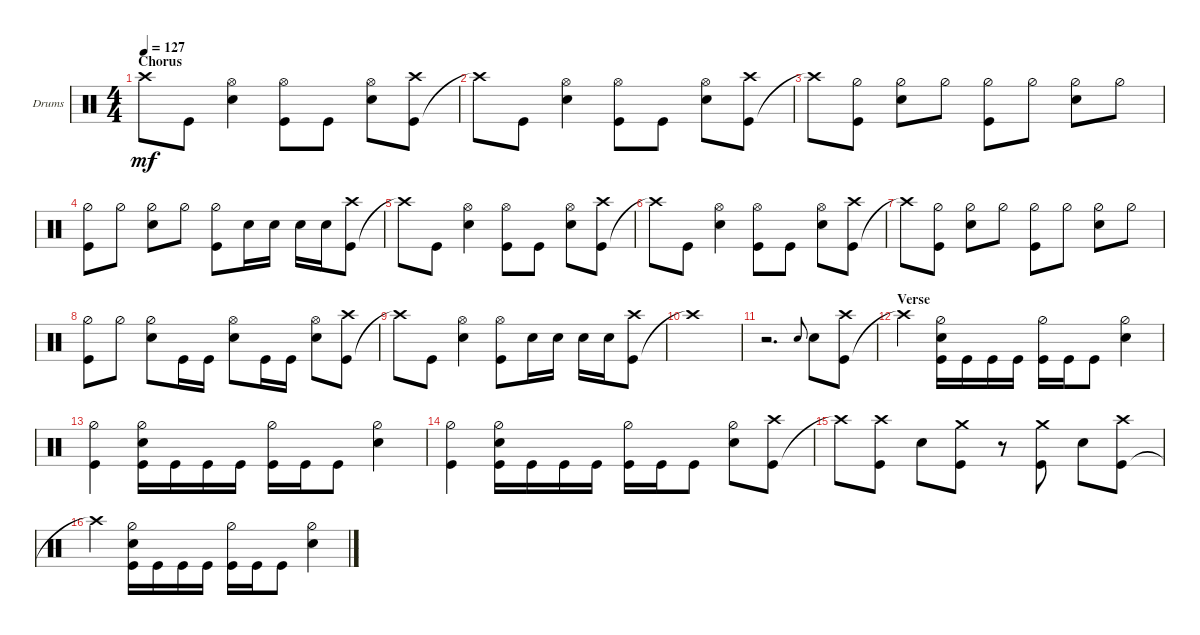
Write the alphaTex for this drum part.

\defaultSystemsLayout 4
\bracketExtendMode groupsimilarinstruments
\firstSystemTrackNameOrientation horizontal
\otherSystemsTrackNameOrientation horizontal
\track ("Drumkit" "Drums") {instrument percussion}
\staff {score}
\articulation defaults
\ts (4 4)
\section ("" "Chorus")
\tempo 127
\clef neutral
\scale
0.333333
\ks c "Crash high (hit)"{t}.8{dy mf} "Kick (hit)".8
("Snare (hit) 2" "Hi-Hat (open)").4 ("Kick (hit)" "Hi-Hat (open)").8 "Kick (hit)".8 ("Snare (hit) 2" "Hi-Hat (open)").8 ("Kick (hit)" "Crash high (hit)").8 |
\scale
0.333333 "Crash high (hit)"{t}.8 "Kick (hit)".8 ("Snare (hit) 2" "Hi-Hat (open)").4 ("Kick (hit)" "Hi-Hat (open)").8 "Kick (hit)".8 ("Snare (hit) 2" "Hi-Hat (open)").8 ("Kick (hit)" "Crash high (hit)").8 |
\scale
0.333333 "Crash high (hit)"{t}.8 ("Hi-Hat (half)" "Kick (hit)").8 ("Snare (hit) 2" "Hi-Hat (half)").8 "Hi-Hat (half)".8 ("Hi-Hat (half)" "Kick (hit)").8 "Hi-Hat (half)".8 ("Hi-Hat (half)" "Snare (hit) 2").8 "Hi-Hat (half)".8 |
\scale
0.333333 ("Hi-Hat (half)" "Kick (hit)").8 "Hi-Hat (half)".8 ("Hi-Hat (half)" "Snare (hit) 2").8 "Hi-Hat (half)".8 ("Hi-Hat (half)" "Kick (hit)").8 "Snare (hit) 2".16 "Snare (hit) 2".16 "Snare (hit) 2".16 "Snare (hit) 2".16 ("Kick (hit)" "Crash high (hit)").8 |
\scale
0.333333 "Crash high (hit)"{t}.8 "Kick (hit)".8 ("Snare (hit) 2" "Hi-Hat (open)").4 ("Kick (hit)" "Hi-Hat (open)").8 "Kick (hit)".8 ("Snare (hit) 2" "Hi-Hat (open)").8 ("Kick (hit)" "Crash high (hit)").8 |
\scale
0.333333 "Crash high (hit)"{t}.8 "Kick (hit)".8 ("Snare (hit) 2" "Hi-Hat (open)").4 ("Kick (hit)" "Hi-Hat (open)").8 "Kick (hit)".8 ("Snare (hit) 2" "Hi-Hat (open)").8 ("Kick (hit)" "Crash high (hit)").8 |
\scale
0.333333 "Crash high (hit)"{t}.8 ("Hi-Hat (half)" "Kick (hit)").8 ("Snare (hit) 2" "Hi-Hat (half)").8 "Hi-Hat (half)".8 ("Hi-Hat (half)" "Kick (hit)").8 "Hi-Hat (half)".8 ("Hi-Hat (half)" "Snare (hit) 2").8 "Hi-Hat (half)".8 |
\scale
0.333333 ("Hi-Hat (half)" "Kick (hit)").8 "Hi-Hat (half)".8 ("Hi-Hat (half)" "Snare (hit) 2").8 "Kick (hit)".16 "Kick (hit)".16 ("Snare (hit) 2" "Hi-Hat (open)").8 "Kick (hit)".16 "Kick (hit)".16 ("Snare (hit) 2" "Hi-Hat (open)").8 ("Kick (hit)" "Crash high (hit)").8 |
\scale
0.333333 "Crash high (hit)"{t}.8 "Kick (hit)".8 ("Snare (hit) 2" "Hi-Hat (open)").4 ("Kick (hit)" "Hi-Hat (open)").8 "Snare (hit) 2".16 "Snare (hit) 2".16 "Snare (hit) 2".16 "Snare (hit) 2".16 ("Kick (hit)" "Crash high (hit)").8 |
\scale
0.333333 "Crash high (hit)"{t}.1 |
\scale
0.333333 r.2{d} "Snare (hit) 2".8{gr onbeat} "Snare (hit) 2".8 ("Kick (hit)" "Crash high (hit)").8 |
\section ("" "Verse")
\scale
0.333333 "Crash high (hit)"{t}.4 ("Kick (hit)" "Snare (hit) 2" "Hi-Hat (half)").16 "Kick (hit)".16 "Kick (hit)".16 "Kick (hit)".16 ("Kick (hit)" "Hi-Hat (half)").16 "Kick (hit)".16 "Kick (hit)".8 ("Snare (hit) 2" "Hi-Hat (half)").4 |
\scale
0.333333 ("Kick (hit)" "Hi-Hat (half)").4 ("Kick (hit)" "Snare (hit) 2" "Hi-Hat (half)").16 "Kick (hit)".16 "Kick (hit)".16 "Kick (hit)".16 ("Kick (hit)" "Hi-Hat (half)").16 "Kick (hit)".16 "Kick (hit)".8 ("Snare (hit) 2" "Hi-Hat (half)").4 |
\scale
0.333333 ("Kick (hit)" "Hi-Hat (half)").4 ("Kick (hit)" "Snare (hit) 2" "Hi-Hat (half)").16 "Kick (hit)".16 "Kick (hit)".16 "Kick (hit)".16 ("Kick (hit)" "Hi-Hat (half)").16 "Kick (hit)".16 "Kick (hit)".8 ("Snare (hit) 2" "Hi-Hat (half)").8 ("Kick (hit)" "Crash high (hit)").8 |
\scale
0.333333 "Crash high (hit)"{t}.8 ("Crash high (hit)" "Kick (hit)").8 "Snare (hit) 2".8 ("Kick (hit)" "Crash medium (hit)").8 r.8 ("Kick (hit)" "Crash medium (hit)").8 "Snare (hit) 2".8 ("Kick (hit)" "Crash high (hit)").8 |
\scale
0.333333 "Crash high (hit)"{t}.4 ("Kick (hit)" "Snare (hit) 2" "Hi-Hat (half)").16 "Kick (hit)".16 "Kick (hit)".16 "Kick (hit)".16 ("Kick (hit)" "Hi-Hat (half)").16 "Kick (hit)".16 "Kick (hit)".8 ("Snare (hit) 2" "Hi-Hat (half)").4
